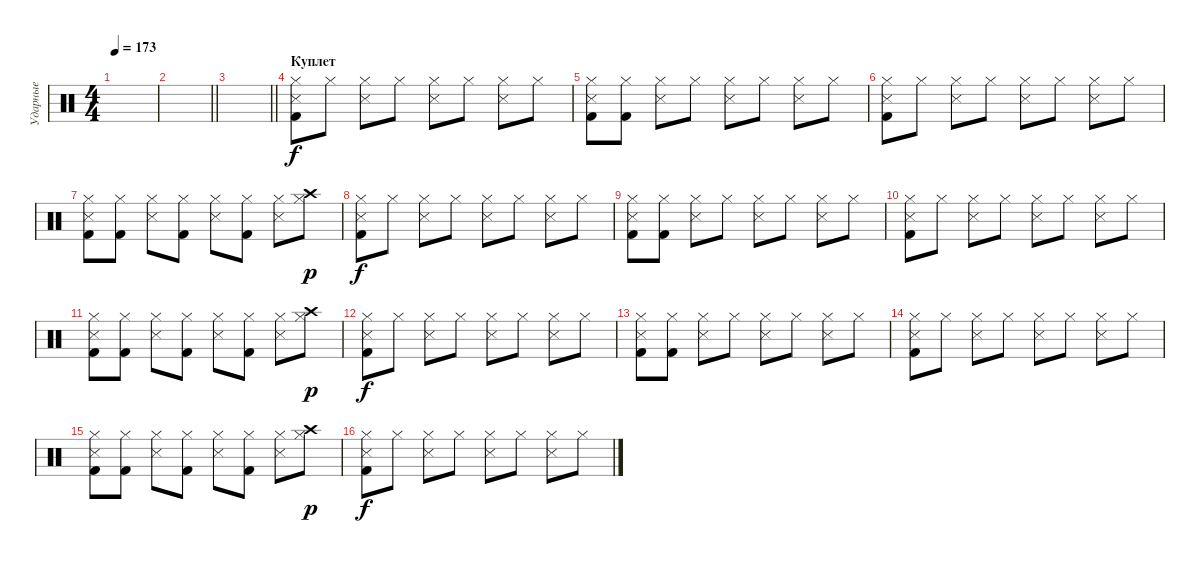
\track ("Ударные" "Ударные") {instrument percussion}
\staff {score}
\articulation defaults
\ts (4 4)
\tempo 173
\clef neutral
\ks c
|
\barLineRight lightlight
|
\barLineRight lightlight
|
\section ("" "Куплет")
("Hi-Hat (closed)" "Snare (side stick) 3" "Kick (hit) 2").8 "Hi-Hat (closed)".8 ("Hi-Hat (closed)" "Snare (side stick) 3").8 "Hi-Hat (closed)".8 ("Hi-Hat (closed)" "Snare (side stick) 3").8 "Hi-Hat (closed)".8 ("Hi-Hat (closed)" "Snare (side stick) 3").8 "Hi-Hat (closed)".8 |
("Hi-Hat (closed)" "Snare (side stick) 3" "Kick (hit) 2").8 ("Hi-Hat (closed)" "Kick (hit) 2").8 ("Hi-Hat (closed)" "Snare (side stick) 3").8 "Hi-Hat (closed)".8 ("Hi-Hat (closed)" "Snare (side stick) 3").8 "Hi-Hat (closed)".8 ("Hi-Hat (closed)" "Snare (side stick) 3").8 "Hi-Hat (closed)".8 |
("Hi-Hat (closed)" "Snare (side stick) 3" "Kick (hit) 2").8 "Hi-Hat (closed)".8 ("Hi-Hat (closed)" "Snare (side stick) 3").8 "Hi-Hat (closed)".8 ("Hi-Hat (closed)" "Snare (side stick) 3").8 "Hi-Hat (closed)".8 ("Hi-Hat (closed)" "Snare (side stick) 3").8 "Hi-Hat (closed)".8 |
("Hi-Hat (closed)" "Snare (side stick) 3" "Kick (hit) 2").8 ("Hi-Hat (closed)" "Kick (hit) 2").8 ("Hi-Hat (closed)" "Snare (side stick) 3").8 ("Hi-Hat (closed)" "Kick (hit) 2").8 ("Hi-Hat (closed)" "Snare (side stick) 3").8 ("Hi-Hat (closed)" "Kick (hit) 2").8 ("Hi-Hat (closed)" "Snare (side stick) 3").8 ("Hi-Hat (closed)" "Crash high (hit)").8{dy p} |
("Hi-Hat (closed)" "Snare (side stick) 3" "Kick (hit) 2").8{dy f} "Hi-Hat (closed)".8 ("Hi-Hat (closed)" "Snare (side stick) 3").8 "Hi-Hat (closed)".8 ("Hi-Hat (closed)" "Snare (side stick) 3").8 "Hi-Hat (closed)".8 ("Hi-Hat (closed)" "Snare (side stick) 3").8 "Hi-Hat (closed)".8 |
("Hi-Hat (closed)" "Snare (side stick) 3" "Kick (hit) 2").8 ("Hi-Hat (closed)" "Kick (hit) 2").8 ("Hi-Hat (closed)" "Snare (side stick) 3").8 "Hi-Hat (closed)".8 ("Hi-Hat (closed)" "Snare (side stick) 3").8 "Hi-Hat (closed)".8 ("Hi-Hat (closed)" "Snare (side stick) 3").8 "Hi-Hat (closed)".8 |
("Hi-Hat (closed)" "Snare (side stick) 3" "Kick (hit) 2").8 "Hi-Hat (closed)".8 ("Hi-Hat (closed)" "Snare (side stick) 3").8 "Hi-Hat (closed)".8 ("Hi-Hat (closed)" "Snare (side stick) 3").8 "Hi-Hat (closed)".8 ("Hi-Hat (closed)" "Snare (side stick) 3").8 "Hi-Hat (closed)".8 |
("Hi-Hat (closed)" "Snare (side stick) 3" "Kick (hit) 2").8 ("Hi-Hat (closed)" "Kick (hit) 2").8 ("Hi-Hat (closed)" "Snare (side stick) 3").8 ("Hi-Hat (closed)" "Kick (hit) 2").8 ("Hi-Hat (closed)" "Snare (side stick) 3").8 ("Hi-Hat (closed)" "Kick (hit) 2").8 ("Hi-Hat (closed)" "Snare (side stick) 3").8 ("Hi-Hat (closed)" "Crash high (hit)").8{dy p} |
("Hi-Hat (closed)" "Snare (side stick) 3" "Kick (hit) 2").8{dy f} "Hi-Hat (closed)".8 ("Hi-Hat (closed)" "Snare (side stick) 3").8 "Hi-Hat (closed)".8 ("Hi-Hat (closed)" "Snare (side stick) 3").8 "Hi-Hat (closed)".8 ("Hi-Hat (closed)" "Snare (side stick) 3").8 "Hi-Hat (closed)".8 |
("Hi-Hat (closed)" "Snare (side stick) 3" "Kick (hit) 2").8 ("Hi-Hat (closed)" "Kick (hit) 2").8 ("Hi-Hat (closed)" "Snare (side stick) 3").8 "Hi-Hat (closed)".8 ("Hi-Hat (closed)" "Snare (side stick) 3").8 "Hi-Hat (closed)".8 ("Hi-Hat (closed)" "Snare (side stick) 3").8 "Hi-Hat (closed)".8 |
("Hi-Hat (closed)" "Snare (side stick) 3" "Kick (hit) 2").8 "Hi-Hat (closed)".8 ("Hi-Hat (closed)" "Snare (side stick) 3").8 "Hi-Hat (closed)".8 ("Hi-Hat (closed)" "Snare (side stick) 3").8 "Hi-Hat (closed)".8 ("Hi-Hat (closed)" "Snare (side stick) 3").8 "Hi-Hat (closed)".8 |
("Hi-Hat (closed)" "Snare (side stick) 3" "Kick (hit) 2").8 ("Hi-Hat (closed)" "Kick (hit) 2").8 ("Hi-Hat (closed)" "Snare (side stick) 3").8 ("Hi-Hat (closed)" "Kick (hit) 2").8 ("Hi-Hat (closed)" "Snare (side stick) 3").8 ("Hi-Hat (closed)" "Kick (hit) 2").8 ("Hi-Hat (closed)" "Snare (side stick) 3").8 ("Hi-Hat (closed)" "Crash high (hit)").8{dy p} |
("Hi-Hat (closed)" "Snare (side stick) 3" "Kick (hit) 2").8{dy f} "Hi-Hat (closed)".8 ("Hi-Hat (closed)" "Snare (side stick) 3").8 "Hi-Hat (closed)".8 ("Hi-Hat (closed)" "Snare (side stick) 3").8 "Hi-Hat (closed)".8 ("Hi-Hat (closed)" "Snare (side stick) 3").8 "Hi-Hat (closed)".8
